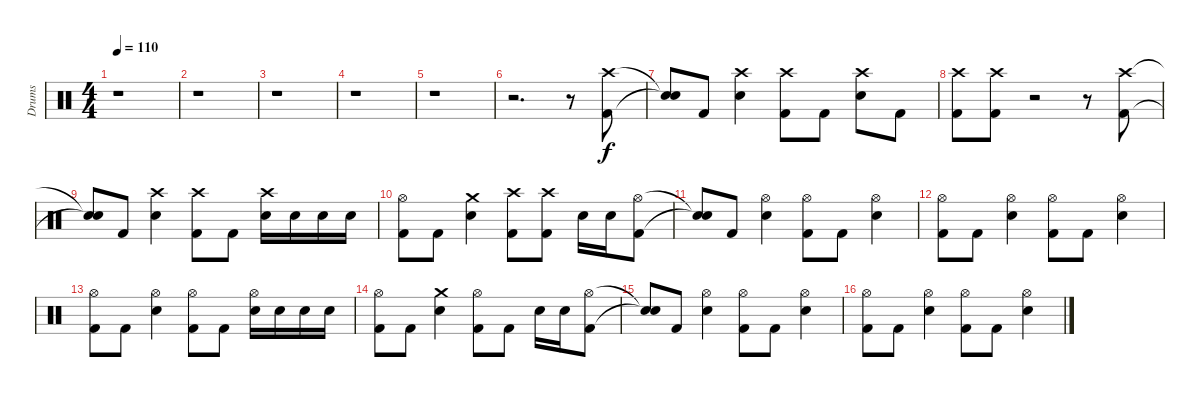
\track ("Drums" "Drums") {instrument percussion}
\staff {score}
\articulation defaults
\ts (4 4)
\tempo 110
\clef neutral
\ks c
r.1{dy f} |
r.1 |
r.1 |
r.1 |
r.1 |
r.2{d} r.8 ("Kick (hit) 2" "Crash high (hit)").8 |
("Snare (hit)"{t} "Snare (hit)"{t}).8 "Kick (hit) 2".8 ("Crash high (hit)" "Snare (hit) 2").4 ("Kick (hit) 2" "Crash high (hit)").8 "Kick (hit) 2".8 ("Crash high (hit)" "Snare (hit) 2").8 "Kick (hit) 2".8 |
("Kick (hit) 2" "Crash high (hit)").8 ("Kick (hit) 2" "Crash high (hit)").8 r.2 r.8 ("Kick (hit) 2" "Crash high (hit)").8 |
("Snare (hit)"{t} "Snare (hit)"{t}).8 "Kick (hit) 2".8 ("Crash high (hit)" "Snare (hit) 2").4 ("Kick (hit) 2" "Crash high (hit)").8 "Kick (hit) 2".8 ("Crash high (hit)" "Snare (hit) 2").16 "Snare (hit) 2".16 "Snare (hit) 2".16 "Snare (hit) 2".16 |
("Kick (hit) 2" "Hi-Hat (open)").8 "Kick (hit) 2".8 ("Crash medium (hit)" "Snare (hit) 2").4 ("Kick (hit) 2" "Crash high (hit)").8 ("Kick (hit) 2" "Crash high (hit)").8 "Snare (hit) 2".16 "Snare (hit) 2".16 ("Kick (hit) 2" "Hi-Hat (open)").8 |
("Snare (hit)"{t} "Snare (hit)"{t}).8 "Kick (hit) 2".8 ("Hi-Hat (open)" "Snare (hit) 2").4 ("Kick (hit) 2" "Hi-Hat (open)").8 "Kick (hit) 2".8 ("Hi-Hat (open)" "Snare (hit) 2").4 |
("Kick (hit) 2" "Hi-Hat (open)").8 "Kick (hit) 2".8 ("Hi-Hat (open)" "Snare (hit) 2").4 ("Kick (hit) 2" "Hi-Hat (open)").8 "Kick (hit) 2".8 ("Hi-Hat (open)" "Snare (hit) 2").4 |
("Kick (hit) 2" "Hi-Hat (open)").8 "Kick (hit) 2".8 ("Hi-Hat (open)" "Snare (hit) 2").4 ("Kick (hit) 2" "Hi-Hat (open)").8 "Kick (hit) 2".8 ("Hi-Hat (open)" "Snare (hit) 2").16 "Snare (hit) 2".16 "Snare (hit) 2".16 "Snare (hit) 2".16 |
("Kick (hit) 2" "Hi-Hat (open)").8 "Kick (hit) 2".8 ("Crash medium (hit)" "Snare (hit) 2").4 ("Kick (hit) 2" "Hi-Hat (open)").8 "Kick (hit) 2".8 "Snare (hit) 2".16 "Snare (hit) 2".16 ("Kick (hit) 2" "Hi-Hat (open)").8 |
("Snare (hit)"{t} "Snare (hit)"{t}).8 "Kick (hit) 2".8 ("Hi-Hat (open)" "Snare (hit) 2").4 ("Kick (hit) 2" "Hi-Hat (open)").8 "Kick (hit) 2".8 ("Hi-Hat (open)" "Snare (hit) 2").4 |
("Kick (hit) 2" "Hi-Hat (open)").8 "Kick (hit) 2".8 ("Hi-Hat (open)" "Snare (hit) 2").4 ("Kick (hit) 2" "Hi-Hat (open)").8 "Kick (hit) 2".8 ("Hi-Hat (open)" "Snare (hit) 2").4
